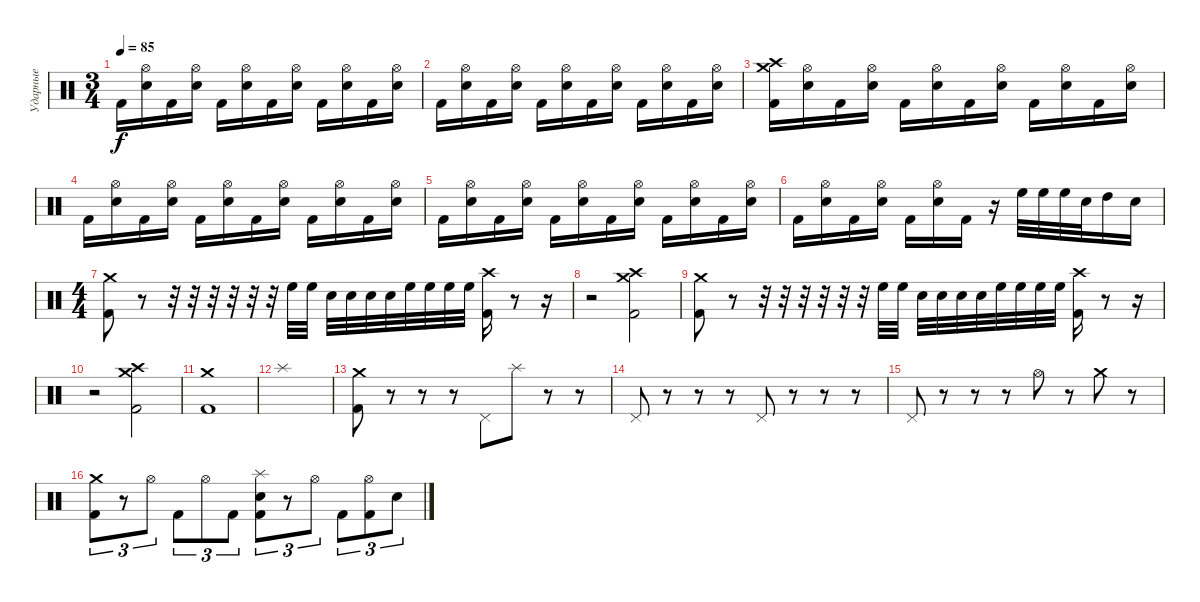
\track ("Ударные" "Ударные") {instrument percussion}
\staff {score}
\articulation defaults
\ts (3 4)
\tempo 85
\clef neutral
\ks c "Kick (hit) 2".16{dy f}
("Hi-Hat (open)" "Electric Snare (hit)").16 "Kick (hit) 2".16 ("Hi-Hat (open)" "Electric Snare (hit)").16 "Kick (hit) 2".16 ("Hi-Hat (open)" "Electric Snare (hit)").16 "Kick (hit) 2".16 ("Hi-Hat (open)" "Electric Snare (hit)").16 "Kick (hit) 2".16 ("Hi-Hat (open)" "Electric Snare (hit)").16 "Kick (hit) 2".16 ("Hi-Hat (open)" "Electric Snare (hit)").16 |
"Kick (hit) 2".16 ("Hi-Hat (open)" "Electric Snare (hit)").16 "Kick (hit) 2".16 ("Hi-Hat (open)" "Electric Snare (hit)").16 "Kick (hit) 2".16 ("Hi-Hat (open)" "Electric Snare (hit)").16 "Kick (hit) 2".16 ("Hi-Hat (open)" "Electric Snare (hit)").16 "Kick (hit) 2".16 ("Hi-Hat (open)" "Electric Snare (hit)").16 "Kick (hit) 2".16 ("Hi-Hat (open)" "Electric Snare (hit)").16 |
("Crash high (hit)" "Crash medium (hit)" "Kick (hit) 2").16 ("Hi-Hat (open)" "Electric Snare (hit)").16 "Kick (hit) 2".16 ("Hi-Hat (open)" "Electric Snare (hit)").16 "Kick (hit) 2".16 ("Hi-Hat (open)" "Electric Snare (hit)").16 "Kick (hit) 2".16 ("Hi-Hat (open)" "Electric Snare (hit)").16 "Kick (hit) 2".16 ("Hi-Hat (open)" "Electric Snare (hit)").16 "Kick (hit) 2".16 ("Hi-Hat (open)" "Electric Snare (hit)").16 |
"Kick (hit) 2".16 ("Hi-Hat (open)" "Electric Snare (hit)").16 "Kick (hit) 2".16 ("Hi-Hat (open)" "Electric Snare (hit)").16 "Kick (hit) 2".16 ("Hi-Hat (open)" "Electric Snare (hit)").16 "Kick (hit) 2".16 ("Hi-Hat (open)" "Electric Snare (hit)").16 "Kick (hit) 2".16 ("Hi-Hat (open)" "Electric Snare (hit)").16 "Kick (hit) 2".16 ("Hi-Hat (open)" "Electric Snare (hit)").16 |
"Kick (hit) 2".16 ("Hi-Hat (open)" "Electric Snare (hit)").16 "Kick (hit) 2".16 ("Hi-Hat (open)" "Electric Snare (hit)").16 "Kick (hit) 2".16 ("Hi-Hat (open)" "Electric Snare (hit)").16 "Kick (hit) 2".16 ("Hi-Hat (open)" "Electric Snare (hit)").16 "Kick (hit) 2".16 ("Hi-Hat (open)" "Electric Snare (hit)").16 "Kick (hit) 2".16 ("Hi-Hat (open)" "Electric Snare (hit)").16 |
"Kick (hit) 2".16 ("Hi-Hat (open)" "Electric Snare (hit)").16 "Kick (hit) 2".16 ("Hi-Hat (open)" "Electric Snare (hit)").16 "Kick (hit) 2".16 ("Hi-Hat (open)" "Electric Snare (hit)").16 "Kick (hit) 2".16 r.16 "High Floor Tom (hit)".32 "High Floor Tom (hit)".32 "High Floor Tom (hit)".32 "Electric Snare (hit)".32 "High Tom (hit)".16 "Electric Snare (hit)".16 |
\ts (4 4)
("Crash medium (hit)" "Kick (hit) 2").8 r.8 r.32 r.32 r.32 r.32 r.32 r.32 "High Floor Tom (hit)".32 "High Floor Tom (hit)".32 "Electric Snare (hit)".32 "Electric Snare (hit)".32 "Electric Snare (hit)".32 "Electric Snare (hit)".32 "High Floor Tom (hit)".32 "High Floor Tom (hit)".32 "High Floor Tom (hit)".32 "High Floor Tom (hit)".32 ("Crash high (hit)" "Kick (hit) 2").16 r.8 r.16 |
r.2 ("Crash medium (hit)" "Crash high (hit)" "Kick (hit) 2").2 |
("Crash medium (hit)" "Kick (hit) 2").8 r.8 r.32 r.32 r.32 r.32 r.32 r.32 "High Floor Tom (hit)".32 "High Floor Tom (hit)".32 "Electric Snare (hit)".32 "Electric Snare (hit)".32 "Electric Snare (hit)".32 "Electric Snare (hit)".32 "High Floor Tom (hit)".32 "High Floor Tom (hit)".32 "High Floor Tom (hit)".32 "High Floor Tom (hit)".32 ("Crash high (hit)" "Kick (hit) 2").16 r.8 r.16 |
r.2 ("Crash medium (hit)" "Crash high (hit)" "Kick (hit) 2").2 |
("Crash medium (hit)" "Kick (hit) 2").1 |
"Splash (hit)".1 |
("Crash medium (hit)" "Kick (hit) 2").8 r.8 r.8 r.8 "Pedal Hi-Hat (hit)".8 "Splash (hit)".8 r.8 r.8 |
"Pedal Hi-Hat (hit)".8 r.8 r.8 r.8 "Pedal Hi-Hat (hit)".8 r.8 r.8 r.8 |
"Pedal Hi-Hat (hit)".8 r.8 r.8 r.8 "Hi-Hat (open)".8 r.8 "Crash medium (hit)".8 r.8 |
("Crash medium (hit)" "Kick (hit) 2").8{tu (3 2)} r.8{tu (3 2)} "Hi-Hat (open)".8{tu (3 2)} "Kick (hit) 2".8{tu (3 2)} "Hi-Hat (open)".8{tu (3 2)} "Kick (hit) 2".8{tu (3 2)} ("Splash (hit)" "Electric Snare (hit)" "Kick (hit) 2").8{tu (3 2)} r.8{tu (3 2)} "Hi-Hat (open)".8{tu (3 2)} "Kick (hit) 2".8{tu (3 2)} ("Hi-Hat (open)" "Kick (hit) 2").8{tu (3 2)} "Electric Snare (hit)".8{tu (3 2)}
